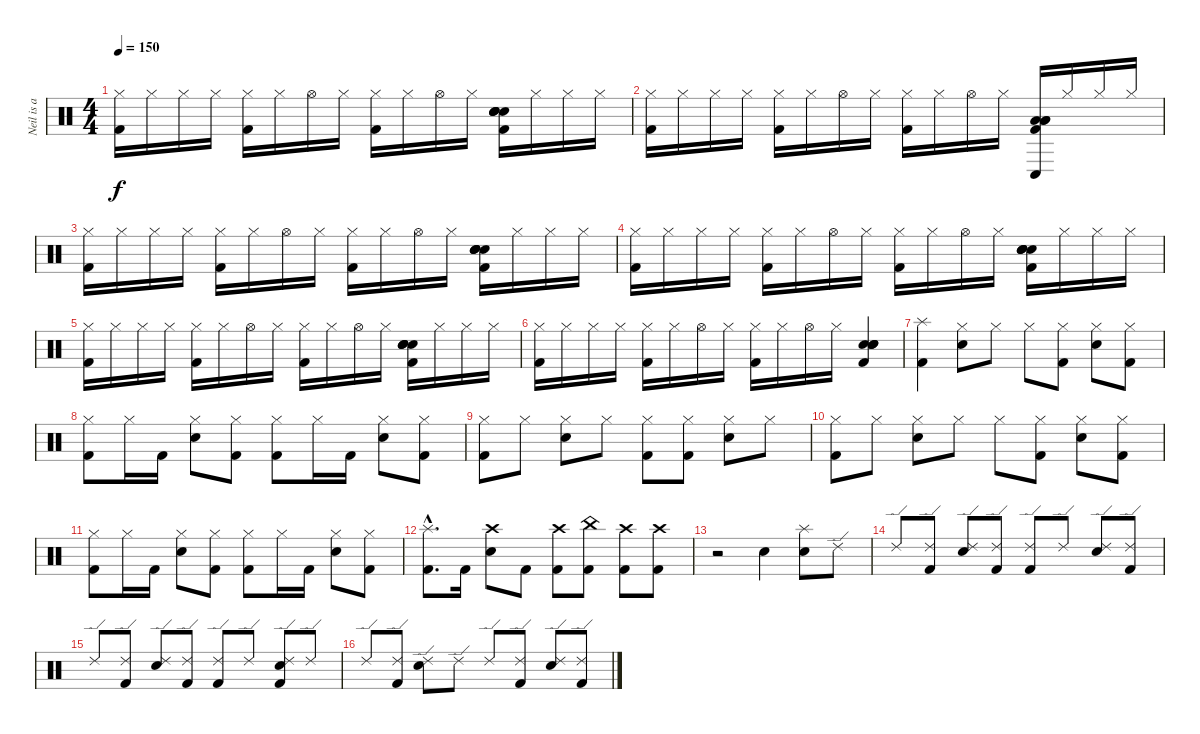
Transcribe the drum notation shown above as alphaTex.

\track ("Neil is a Drum God!!!" "Neil is a ") {instrument percussion}
\staff {score}
\articulation defaults
\ts (4 4)
\tempo 150
\clef neutral
\ks c
("Hi-Hat (closed)" "Kick (hit) 2").16{dy f} "Hi-Hat (closed)".16 "Hi-Hat (closed)".16 "Hi-Hat (closed)".16 ("Hi-Hat (closed)" "Kick (hit) 2").16 "Hi-Hat (closed)".16 "Hi-Hat (open)".16 "Hi-Hat (closed)".16 ("Hi-Hat (closed)" "Kick (hit) 2").16 "Hi-Hat (closed)".16 "Hi-Hat (open)".16 "Hi-Hat (closed)".16 ("Snare (hit) 2" "Snare (hit) 2" "Snare (hit) 2" "Snare (hit) 2" "Kick (hit) 2").16 "Hi-Hat (closed)".16 "Hi-Hat (closed)".16 "Hi-Hat (closed)".16 |
("Hi-Hat (closed)" "Kick (hit) 2").16 "Hi-Hat (closed)".16 "Hi-Hat (closed)".16 "Hi-Hat (closed)".16 ("Hi-Hat (closed)" "Kick (hit) 2").16 "Hi-Hat (closed)".16 "Hi-Hat (open)".16 "Hi-Hat (closed)".16 ("Hi-Hat (closed)" "Kick (hit) 2").16 "Hi-Hat (closed)".16 "Hi-Hat (open)".16 "Hi-Hat (closed)".16 ("Low Tom (hit)" "Low Tom (hit)" "Low Tom (hit)" "Conga low (hit)" "Kick (hit) 2").16 "Hi-Hat (closed)".16 "Hi-Hat (closed)".16 "Hi-Hat (closed)".16 |
("Hi-Hat (closed)" "Kick (hit) 2").16 "Hi-Hat (closed)".16 "Hi-Hat (closed)".16 "Hi-Hat (closed)".16 ("Hi-Hat (closed)" "Kick (hit) 2").16 "Hi-Hat (closed)".16 "Hi-Hat (open)".16 "Hi-Hat (closed)".16 ("Hi-Hat (closed)" "Kick (hit) 2").16 "Hi-Hat (closed)".16 "Hi-Hat (open)".16 "Hi-Hat (closed)".16 ("Snare (hit) 2" "Snare (hit) 2" "Snare (hit) 2" "Snare (hit) 2" "Kick (hit) 2").16 "Hi-Hat (closed)".16 "Hi-Hat (closed)".16 "Hi-Hat (closed)".16 |
("Hi-Hat (closed)" "Kick (hit) 2").16 "Hi-Hat (closed)".16 "Hi-Hat (closed)".16 "Hi-Hat (closed)".16 ("Hi-Hat (closed)" "Kick (hit) 2").16 "Hi-Hat (closed)".16 "Hi-Hat (open)".16 "Hi-Hat (closed)".16 ("Hi-Hat (closed)" "Kick (hit) 2").16 "Hi-Hat (closed)".16 "Hi-Hat (open)".16 "Hi-Hat (closed)".16 ("Snare (hit) 2" "Snare (hit) 2" "Snare (hit) 2" "Snare (hit) 2" "Kick (hit) 2").16 "Hi-Hat (closed)".16 "Hi-Hat (closed)".16 "Hi-Hat (closed)".16 |
("Hi-Hat (closed)" "Kick (hit) 2").16 "Hi-Hat (closed)".16 "Hi-Hat (closed)".16 "Hi-Hat (closed)".16 ("Hi-Hat (closed)" "Kick (hit) 2").16 "Hi-Hat (closed)".16 "Hi-Hat (open)".16 "Hi-Hat (closed)".16 ("Hi-Hat (closed)" "Kick (hit) 2").16 "Hi-Hat (closed)".16 "Hi-Hat (open)".16 "Hi-Hat (closed)".16 ("Snare (hit) 2" "Snare (hit) 2" "Snare (hit) 2" "Snare (hit) 2" "Kick (hit) 2").16 "Hi-Hat (closed)".16 "Hi-Hat (closed)".16 "Hi-Hat (closed)".16 |
("Hi-Hat (closed)" "Kick (hit) 2").16 "Hi-Hat (closed)".16 "Hi-Hat (closed)".16 "Hi-Hat (closed)".16 ("Hi-Hat (closed)" "Kick (hit) 2").16 "Hi-Hat (closed)".16 "Hi-Hat (open)".16 "Hi-Hat (closed)".16 ("Hi-Hat (closed)" "Kick (hit) 2").16 "Hi-Hat (closed)".16 "Hi-Hat (open)".16 "Hi-Hat (closed)".16 ("Snare (hit) 2" "Snare (hit) 2" "Snare (hit) 2" "Snare (hit) 2" "Kick (hit) 2").4 |
("Splash (hit)" "Kick (hit) 2").4 ("Hi-Hat (closed)" "Snare (hit) 2").8 "Hi-Hat (closed)".8 "Hi-Hat (closed)".8 ("Hi-Hat (closed)" "Kick (hit) 2").8 ("Hi-Hat (closed)" "Snare (hit) 2").8 ("Hi-Hat (closed)" "Kick (hit) 2").8 |
("Hi-Hat (closed)" "Kick (hit) 2").8 "Hi-Hat (closed)".16 "Kick (hit) 2".16 ("Hi-Hat (closed)" "Snare (hit) 2").8 ("Hi-Hat (closed)" "Kick (hit) 2").8 ("Hi-Hat (closed)" "Kick (hit) 2").8 "Hi-Hat (closed)".16 "Kick (hit) 2".16 ("Hi-Hat (closed)" "Snare (hit) 2").8 ("Hi-Hat (closed)" "Kick (hit) 2").8 |
("Hi-Hat (closed)" "Kick (hit) 2").8 "Hi-Hat (closed)".8 ("Hi-Hat (closed)" "Snare (hit) 2").8 "Hi-Hat (closed)".8 ("Hi-Hat (closed)" "Kick (hit) 2").8 ("Hi-Hat (closed)" "Kick (hit) 2").8 ("Hi-Hat (closed)" "Snare (hit) 2").8 "Hi-Hat (closed)".8 |
("Hi-Hat (closed)" "Kick (hit) 2").8 "Hi-Hat (closed)".8 ("Hi-Hat (closed)" "Snare (hit) 2").8 "Hi-Hat (closed)".8 "Hi-Hat (closed)".8 ("Hi-Hat (closed)" "Kick (hit) 2").8 ("Hi-Hat (closed)" "Snare (hit) 2").8 ("Hi-Hat (closed)" "Kick (hit) 2").8 |
("Hi-Hat (closed)" "Kick (hit) 2").8 "Hi-Hat (closed)".16 "Kick (hit) 2".16 ("Hi-Hat (closed)" "Snare (hit) 2").8 ("Hi-Hat (closed)" "Kick (hit) 2").8 ("Hi-Hat (closed)" "Kick (hit) 2").8 "Hi-Hat (closed)".16 "Kick (hit) 2".16 ("Hi-Hat (closed)" "Snare (hit) 2").8 ("Hi-Hat (closed)" "Kick (hit) 2").8 |
("Splash (hit)"{hac} "Kick (hit) 2"{hac}).8{d} "Kick (hit) 2".16 ("Crash high (hit)" "Snare (hit) 2").8 "Kick (hit) 2".8 ("Crash high (hit)" "Kick (hit) 2").8 ("China (hit)" "Kick (hit) 2").8 ("Crash high (hit)" "Kick (hit) 2").8 ("Crash high (hit)" "Kick (hit) 2").8 |
r.2 "Snare (hit) 2".4 ("Splash (hit)" "Snare (hit) 2").8 "Ride (edge) 2".8 |
"Ride (edge) 2".8 ("Ride (edge) 2" "Kick (hit) 2").8 ("Ride (edge) 2" "Snare (hit) 2").8 ("Ride (edge) 2" "Kick (hit) 2").8 ("Ride (edge) 2" "Kick (hit) 2").8 "Ride (edge) 2".8 ("Ride (edge) 2" "Snare (hit) 2").8 ("Ride (edge) 2" "Kick (hit) 2").8 |
"Ride (edge) 2".8 ("Ride (edge) 2" "Kick (hit) 2").8 ("Ride (edge) 2" "Snare (hit) 2").8 ("Ride (edge) 2" "Kick (hit) 2").8 ("Ride (edge) 2" "Kick (hit) 2").8 "Ride (edge) 2".8 ("Ride (edge) 2" "Snare (hit) 2" "Kick (hit) 2").8 "Ride (edge) 2".8 |
"Ride (edge) 2".8 ("Ride (edge) 2" "Kick (hit) 2").8 ("Ride (edge) 2" "Snare (hit) 2").8 "Ride (edge) 2".8 "Ride (edge) 2".8 ("Ride (edge) 2" "Kick (hit) 2").8 ("Ride (edge) 2" "Snare (hit) 2").8 ("Ride (edge) 2" "Kick (hit) 2").8
